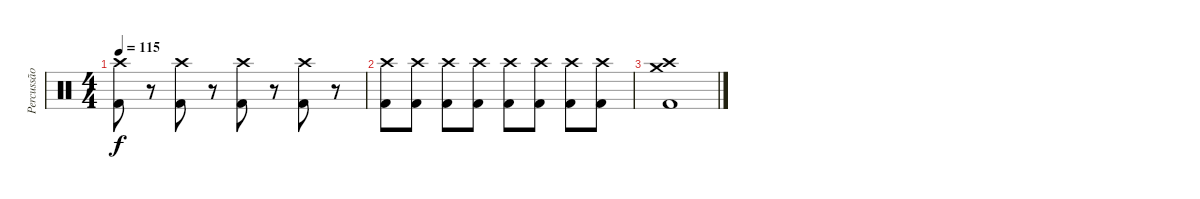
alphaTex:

\track ("Percussão" "Percussão") {instrument percussion}
\staff {score}
\articulation defaults
\ts (4 4)
\tempo 115
\clef neutral
\ks c
("Crash high (hit)" "Kick (hit) 2").8{dy f volume 13 balance 0} r.8{volume 0} ("Crash high (hit)" "Kick (hit) 2").8{volume 13 balance 16} r.8{volume 0} ("Crash high (hit)" "Kick (hit) 2").8{volume 13 balance 0} r.8{volume 0} ("Crash high (hit)" "Kick (hit) 2").8{volume 13 balance 16} r.8{volume 0} |
("Crash high (hit)" "Kick (hit) 2").8{volume 13 balance 0} ("Crash high (hit)" "Kick (hit) 2").8{volume 13 balance 16} ("Crash high (hit)" "Kick (hit) 2").8{volume 13 balance 0} ("Crash high (hit)" "Kick (hit) 2").8{volume 13 balance 16} ("Crash high (hit)" "Kick (hit) 2").8{volume 13 balance 0} ("Crash high (hit)" "Kick (hit) 2").8{volume 13 balance 16} ("Crash high (hit)" "Kick (hit) 2").8{volume 13 balance 0} ("Crash high (hit)" "Kick (hit) 2").8{volume 13 balance 16} |
("Crash high (hit)" "Crash medium (hit)" "Kick (hit) 2").1
